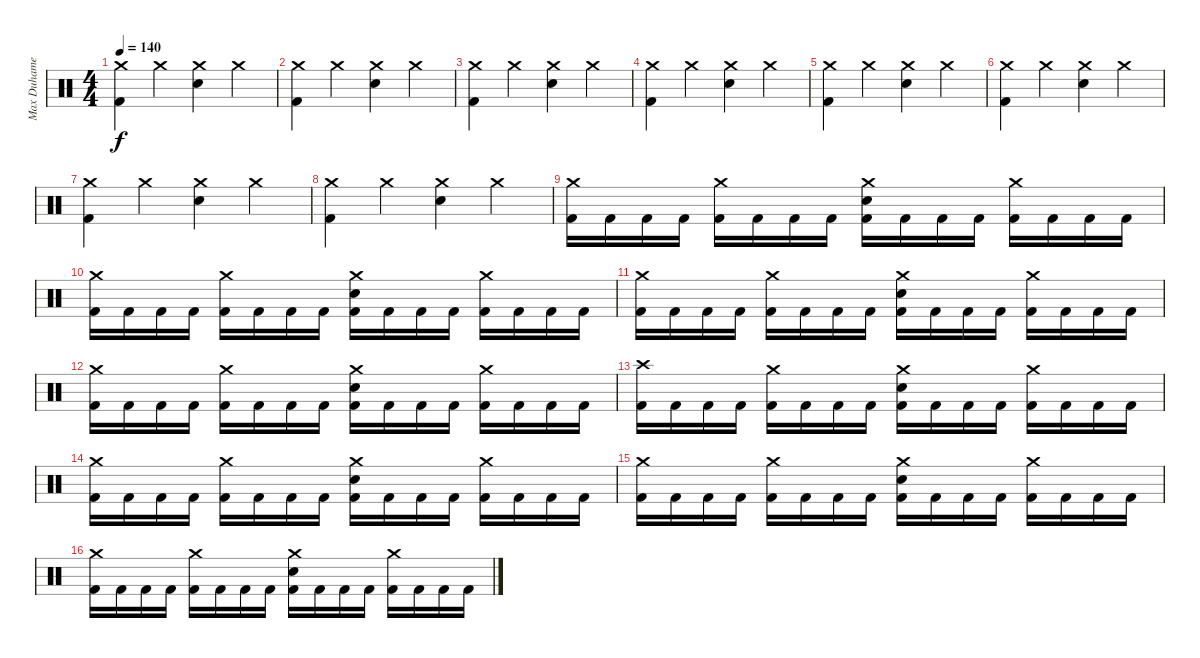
\track ("Max Duhamel (Drums)" "Max Duhame") {instrument percussion}
\staff {score}
\articulation defaults
\ts (4 4)
\tempo 140
\clef neutral
\ks c
("Crash medium (hit)" "Kick (hit) 2").4{dy f} "Crash medium (hit)".4 ("Crash medium (hit)" "Electric Snare (hit)").4 "Crash medium (hit)".4 |
("Crash medium (hit)" "Kick (hit) 2").4 "Crash medium (hit)".4 ("Crash medium (hit)" "Electric Snare (hit)").4 "Crash medium (hit)".4 |
("Crash medium (hit)" "Kick (hit) 2").4 "Crash medium (hit)".4 ("Crash medium (hit)" "Electric Snare (hit)").4 "Crash medium (hit)".4 |
("Crash medium (hit)" "Kick (hit) 2").4 "Crash medium (hit)".4 ("Crash medium (hit)" "Electric Snare (hit)").4 "Crash medium (hit)".4 |
("Crash medium (hit)" "Kick (hit) 2").4 "Crash medium (hit)".4 ("Crash medium (hit)" "Electric Snare (hit)").4 "Crash medium (hit)".4 |
("Crash medium (hit)" "Kick (hit) 2").4 "Crash medium (hit)".4 ("Crash medium (hit)" "Electric Snare (hit)").4 "Crash medium (hit)".4 |
("Crash medium (hit)" "Kick (hit) 2").4 "Crash medium (hit)".4 ("Crash medium (hit)" "Electric Snare (hit)").4 "Crash medium (hit)".4 |
("Crash medium (hit)" "Kick (hit) 2").4 "Crash medium (hit)".4 ("Crash medium (hit)" "Electric Snare (hit)").4 "Crash medium (hit)".4 |
("Crash medium (hit)" "Kick (hit) 2").16 "Kick (hit) 2".16 "Kick (hit) 2".16 "Kick (hit) 2".16 ("Crash medium (hit)" "Kick (hit) 2").16 "Kick (hit) 2".16 "Kick (hit) 2".16 "Kick (hit) 2".16 ("Crash medium (hit)" "Electric Snare (hit)" "Kick (hit) 2").16 "Kick (hit) 2".16 "Kick (hit) 2".16 "Kick (hit) 2".16 ("Crash medium (hit)" "Kick (hit) 2").16 "Kick (hit) 2".16 "Kick (hit) 2".16 "Kick (hit) 2".16 |
("Crash medium (hit)" "Kick (hit) 2").16 "Kick (hit) 2".16 "Kick (hit) 2".16 "Kick (hit) 2".16 ("Crash medium (hit)" "Kick (hit) 2").16 "Kick (hit) 2".16 "Kick (hit) 2".16 "Kick (hit) 2".16 ("Crash medium (hit)" "Electric Snare (hit)" "Kick (hit) 2").16 "Kick (hit) 2".16 "Kick (hit) 2".16 "Kick (hit) 2".16 ("Crash medium (hit)" "Kick (hit) 2").16 "Kick (hit) 2".16 "Kick (hit) 2".16 "Kick (hit) 2".16 |
("Crash medium (hit)" "Kick (hit) 2").16 "Kick (hit) 2".16 "Kick (hit) 2".16 "Kick (hit) 2".16 ("Crash medium (hit)" "Kick (hit) 2").16 "Kick (hit) 2".16 "Kick (hit) 2".16 "Kick (hit) 2".16 ("Crash medium (hit)" "Electric Snare (hit)" "Kick (hit) 2").16 "Kick (hit) 2".16 "Kick (hit) 2".16 "Kick (hit) 2".16 ("Crash medium (hit)" "Kick (hit) 2").16 "Kick (hit) 2".16 "Kick (hit) 2".16 "Kick (hit) 2".16 |
("Crash medium (hit)" "Kick (hit) 2").16 "Kick (hit) 2".16 "Kick (hit) 2".16 "Kick (hit) 2".16 ("Crash medium (hit)" "Kick (hit) 2").16 "Kick (hit) 2".16 "Kick (hit) 2".16 "Kick (hit) 2".16 ("Crash medium (hit)" "Electric Snare (hit)" "Kick (hit) 2").16 "Kick (hit) 2".16 "Kick (hit) 2".16 "Kick (hit) 2".16 ("Crash medium (hit)" "Kick (hit) 2").16 "Kick (hit) 2".16 "Kick (hit) 2".16 "Kick (hit) 2".16 |
("Crash high (hit)" "Kick (hit) 2").16 "Kick (hit) 2".16 "Kick (hit) 2".16 "Kick (hit) 2".16 ("Crash medium (hit)" "Kick (hit) 2").16 "Kick (hit) 2".16 "Kick (hit) 2".16 "Kick (hit) 2".16 ("Crash medium (hit)" "Electric Snare (hit)" "Kick (hit) 2").16 "Kick (hit) 2".16 "Kick (hit) 2".16 "Kick (hit) 2".16 ("Crash medium (hit)" "Kick (hit) 2").16 "Kick (hit) 2".16 "Kick (hit) 2".16 "Kick (hit) 2".16 |
("Crash medium (hit)" "Kick (hit) 2").16 "Kick (hit) 2".16 "Kick (hit) 2".16 "Kick (hit) 2".16 ("Crash medium (hit)" "Kick (hit) 2").16 "Kick (hit) 2".16 "Kick (hit) 2".16 "Kick (hit) 2".16 ("Crash medium (hit)" "Electric Snare (hit)" "Kick (hit) 2").16 "Kick (hit) 2".16 "Kick (hit) 2".16 "Kick (hit) 2".16 ("Crash medium (hit)" "Kick (hit) 2").16 "Kick (hit) 2".16 "Kick (hit) 2".16 "Kick (hit) 2".16 |
("Crash medium (hit)" "Kick (hit) 2").16 "Kick (hit) 2".16 "Kick (hit) 2".16 "Kick (hit) 2".16 ("Crash medium (hit)" "Kick (hit) 2").16 "Kick (hit) 2".16 "Kick (hit) 2".16 "Kick (hit) 2".16 ("Crash medium (hit)" "Electric Snare (hit)" "Kick (hit) 2").16 "Kick (hit) 2".16 "Kick (hit) 2".16 "Kick (hit) 2".16 ("Crash medium (hit)" "Kick (hit) 2").16 "Kick (hit) 2".16 "Kick (hit) 2".16 "Kick (hit) 2".16 |
("Crash medium (hit)" "Kick (hit) 2").16 "Kick (hit) 2".16 "Kick (hit) 2".16 "Kick (hit) 2".16 ("Crash medium (hit)" "Kick (hit) 2").16 "Kick (hit) 2".16 "Kick (hit) 2".16 "Kick (hit) 2".16 ("Crash medium (hit)" "Electric Snare (hit)" "Kick (hit) 2").16 "Kick (hit) 2".16 "Kick (hit) 2".16 "Kick (hit) 2".16 ("Crash medium (hit)" "Kick (hit) 2").16 "Kick (hit) 2".16 "Kick (hit) 2".16 "Kick (hit) 2".16
